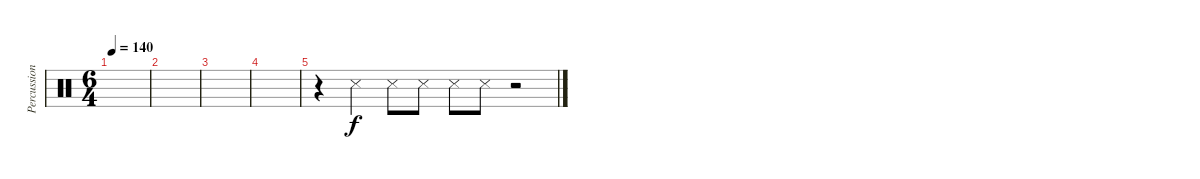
\track ("Percussion" "Percussion") {instrument percussion}
\staff {score}
\articulation defaults
\ts (6 4)
\tempo 140
\clef neutral
\ks c
|
|
|
|
r.4 "Metronome (hit)".4 "Metronome (hit)".8 "Metronome (hit)".8 "Metronome (hit)".8 "Metronome (hit)".8 r.2
